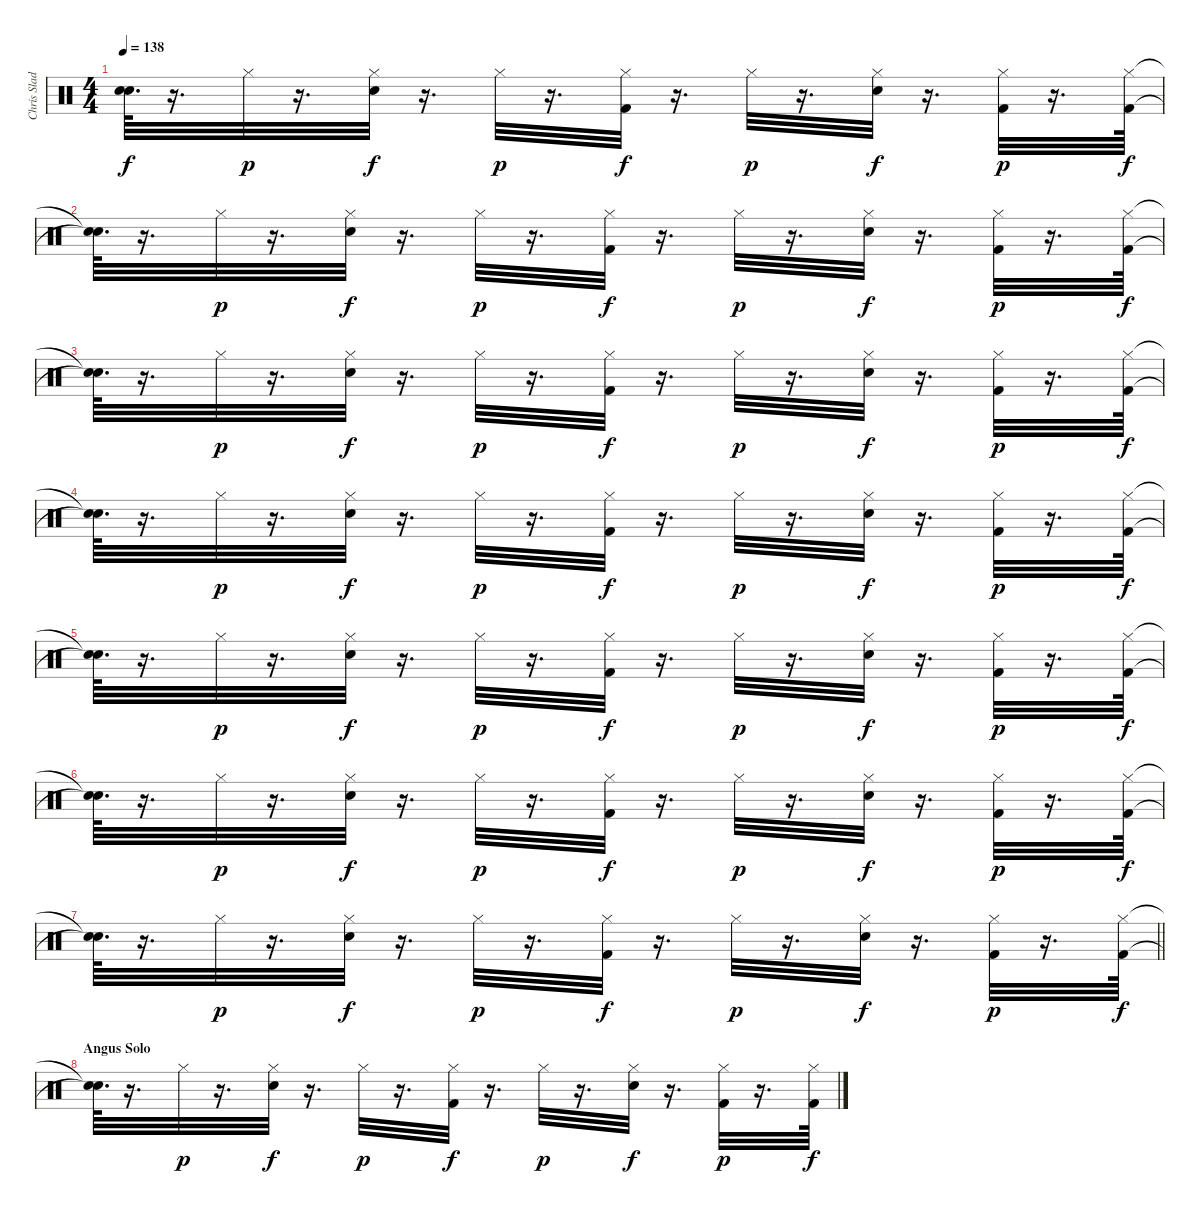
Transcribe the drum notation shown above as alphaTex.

\track ("Chris Slade" "Chris Slad") {instrument percussion}
\staff {score}
\articulation defaults
\ts (4 4)
\tempo 138
\clef neutral
\ks c
("Snare (hit)"{t} "Snare (hit)"{t}).64{d dy f} r.16{d} "Hi-Hat (closed)".32{dy p} r.16{d} ("Hi-Hat (closed)" "Electric Snare (hit)").32{dy f} r.16{d} "Hi-Hat (closed)".32{dy p} r.16{d} ("Hi-Hat (closed)" "Kick (hit) 2").32{dy f} r.16{d} "Hi-Hat (closed)".32{dy p} r.16{d} ("Hi-Hat (closed)" "Electric Snare (hit)").32{dy f} r.16{d} ("Hi-Hat (closed)" "Kick (hit) 2").32{dy p} r.16{d} ("Hi-Hat (closed)" "Kick (hit) 2").64{dy f} |
("Snare (hit)"{t} "Snare (hit)"{t}).64{d} r.16{d} "Hi-Hat (closed)".32{dy p} r.16{d} ("Hi-Hat (closed)" "Electric Snare (hit)").32{dy f} r.16{d} "Hi-Hat (closed)".32{dy p} r.16{d} ("Hi-Hat (closed)" "Kick (hit) 2").32{dy f} r.16{d} "Hi-Hat (closed)".32{dy p} r.16{d} ("Hi-Hat (closed)" "Electric Snare (hit)").32{dy f} r.16{d} ("Hi-Hat (closed)" "Kick (hit) 2").32{dy p} r.16{d} ("Hi-Hat (closed)" "Kick (hit) 2").64{dy f} |
("Snare (hit)"{t} "Snare (hit)"{t}).64{d} r.16{d} "Hi-Hat (closed)".32{dy p} r.16{d} ("Hi-Hat (closed)" "Electric Snare (hit)").32{dy f} r.16{d} "Hi-Hat (closed)".32{dy p} r.16{d} ("Hi-Hat (closed)" "Kick (hit) 2").32{dy f} r.16{d} "Hi-Hat (closed)".32{dy p} r.16{d} ("Hi-Hat (closed)" "Electric Snare (hit)").32{dy f} r.16{d} ("Hi-Hat (closed)" "Kick (hit) 2").32{dy p} r.16{d} ("Hi-Hat (closed)" "Kick (hit) 2").64{dy f} |
("Snare (hit)"{t} "Snare (hit)"{t}).64{d} r.16{d} "Hi-Hat (closed)".32{dy p} r.16{d} ("Hi-Hat (closed)" "Electric Snare (hit)").32{dy f} r.16{d} "Hi-Hat (closed)".32{dy p} r.16{d} ("Hi-Hat (closed)" "Kick (hit) 2").32{dy f} r.16{d} "Hi-Hat (closed)".32{dy p} r.16{d} ("Hi-Hat (closed)" "Electric Snare (hit)").32{dy f} r.16{d} ("Hi-Hat (closed)" "Kick (hit) 2").32{dy p} r.16{d} ("Hi-Hat (closed)" "Kick (hit) 2").64{dy f} |
("Snare (hit)"{t} "Snare (hit)"{t}).64{d} r.16{d} "Hi-Hat (closed)".32{dy p} r.16{d} ("Hi-Hat (closed)" "Electric Snare (hit)").32{dy f} r.16{d} "Hi-Hat (closed)".32{dy p} r.16{d} ("Hi-Hat (closed)" "Kick (hit) 2").32{dy f} r.16{d} "Hi-Hat (closed)".32{dy p} r.16{d} ("Hi-Hat (closed)" "Electric Snare (hit)").32{dy f} r.16{d} ("Hi-Hat (closed)" "Kick (hit) 2").32{dy p} r.16{d} ("Hi-Hat (closed)" "Kick (hit) 2").64{dy f} |
("Snare (hit)"{t} "Snare (hit)"{t}).64{d} r.16{d} "Hi-Hat (closed)".32{dy p} r.16{d} ("Hi-Hat (closed)" "Electric Snare (hit)").32{dy f} r.16{d} "Hi-Hat (closed)".32{dy p} r.16{d} ("Hi-Hat (closed)" "Kick (hit) 2").32{dy f} r.16{d} "Hi-Hat (closed)".32{dy p} r.16{d} ("Hi-Hat (closed)" "Electric Snare (hit)").32{dy f} r.16{d} ("Hi-Hat (closed)" "Kick (hit) 2").32{dy p} r.16{d} ("Hi-Hat (closed)" "Kick (hit) 2").64{dy f} |
\barLineRight lightlight
("Snare (hit)"{t} "Snare (hit)"{t}).64{d} r.16{d} "Hi-Hat (closed)".32{dy p} r.16{d} ("Hi-Hat (closed)" "Electric Snare (hit)").32{dy f} r.16{d} "Hi-Hat (closed)".32{dy p} r.16{d} ("Hi-Hat (closed)" "Kick (hit) 2").32{dy f} r.16{d} "Hi-Hat (closed)".32{dy p} r.16{d} ("Hi-Hat (closed)" "Electric Snare (hit)").32{dy f} r.16{d} ("Hi-Hat (closed)" "Kick (hit) 2").32{dy p} r.16{d} ("Hi-Hat (closed)" "Kick (hit) 2").64{dy f} |
\section ("" "Angus Solo")
("Snare (hit)"{t} "Snare (hit)"{t}).64{d} r.16{d} "Hi-Hat (closed)".32{dy p} r.16{d} ("Hi-Hat (closed)" "Electric Snare (hit)").32{dy f} r.16{d} "Hi-Hat (closed)".32{dy p} r.16{d} ("Hi-Hat (closed)" "Kick (hit) 2").32{dy f} r.16{d} "Hi-Hat (closed)".32{dy p} r.16{d} ("Hi-Hat (closed)" "Electric Snare (hit)").32{dy f} r.16{d} ("Hi-Hat (closed)" "Kick (hit) 2").32{dy p} r.16{d} ("Hi-Hat (closed)" "Kick (hit) 2").64{dy f}
